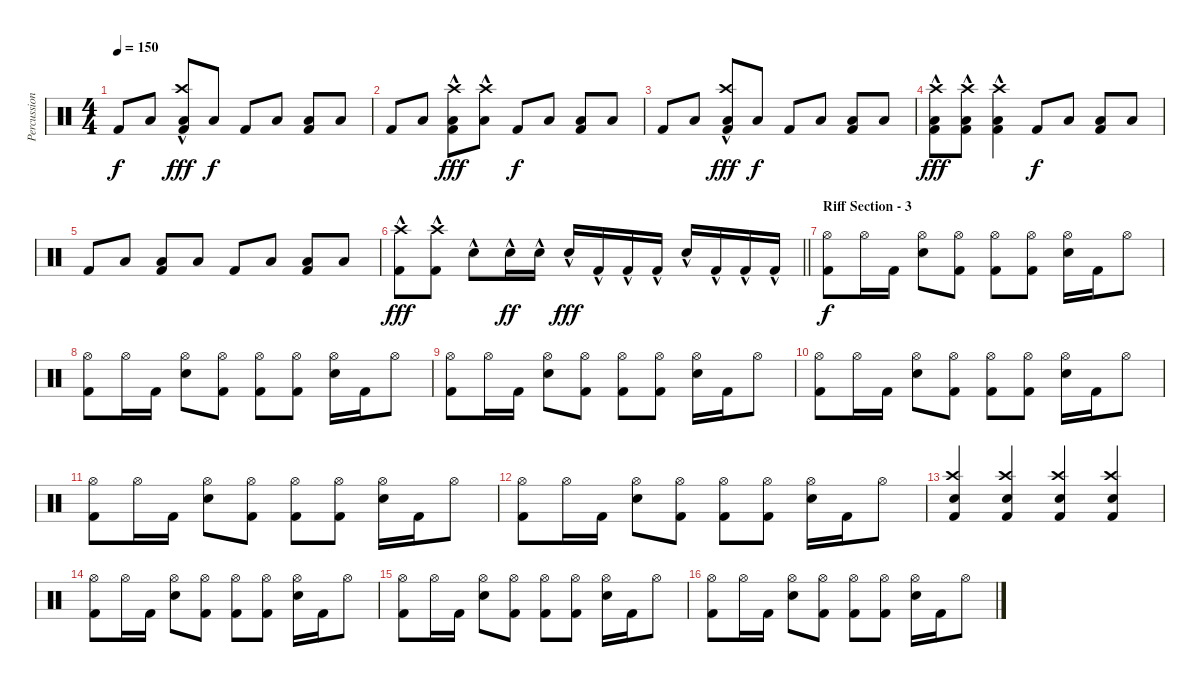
\track ("Percussion" "Percussion") {instrument percussion}
\staff {score}
\articulation defaults
\ts (4 4)
\tempo 150
\clef neutral
\ks c "Kick (hit) 2".8{dy f} "Low Floor Tom (hit)".8
("Crash high (hit)"{hac} "Low Tom (hit)" "Kick (hit) 2").8{dy fff} "Low Floor Tom (hit)".8{dy f} "Kick (hit) 2".8 "Low Floor Tom (hit)".8 ("Low Tom (hit)" "Kick (hit) 2").8 "Low Floor Tom (hit)".8 |
"Kick (hit) 2".8 "Low Floor Tom (hit)".8 ("Crash high (hit)"{hac} "Low Tom (hit)" "Kick (hit) 2").8{dy fff} ("Crash high (hit)"{hac} "Low Floor Tom (hit)").8 "Kick (hit) 2".8{dy f} "Low Floor Tom (hit)".8 ("Low Tom (hit)" "Kick (hit) 2").8 "Low Floor Tom (hit)".8 |
"Kick (hit) 2".8 "Low Floor Tom (hit)".8 ("Crash high (hit)"{hac} "Low Tom (hit)" "Kick (hit) 2").8{dy fff} "Low Floor Tom (hit)".8{dy f} "Kick (hit) 2".8 "Low Floor Tom (hit)".8 ("Low Tom (hit)" "Kick (hit) 2").8 "Low Floor Tom (hit)".8 |
("Crash high (hit)"{hac} "Low Floor Tom (hit)"{hac} "Kick (hit) 2"{hac}).8{dy fff} ("Crash high (hit)"{hac} "Low Floor Tom (hit)"{hac} "Kick (hit) 2"{hac}).8 ("Crash high (hit)"{hac} "Low Floor Tom (hit)"{hac} "Kick (hit) 2"{hac}).4 "Kick (hit) 2".8{dy f} "Low Floor Tom (hit)".8 ("Low Tom (hit)" "Kick (hit) 2").8 "Low Floor Tom (hit)".8 |
"Kick (hit) 2".8 "Low Floor Tom (hit)".8 ("Low Tom (hit)" "Kick (hit) 2").8 "Low Floor Tom (hit)".8 "Kick (hit) 2".8 "Low Floor Tom (hit)".8 ("Low Tom (hit)" "Kick (hit) 2").8 "Low Floor Tom (hit)".8 |
\barLineRight lightlight
("Crash high (hit)"{hac} "Kick (hit) 2"{hac}).8{dy fff} ("Crash high (hit)"{hac} "Kick (hit) 2"{hac}).8 "Snare (hit) 2"{hac}.8 "Snare (hit) 2"{hac}.16{dy ff} "Snare (hit) 2"{hac}.16 "Snare (hit) 2"{hac}.16{dy fff} "Kick (hit) 2"{hac}.16 "Kick (hit) 2"{hac}.16 "Kick (hit) 2"{hac}.16 "Snare (hit) 2"{hac}.16 "Kick (hit) 2"{hac}.16 "Kick (hit) 2"{hac}.16 "Kick (hit) 2"{hac}.16 |
\section ("" "Riff Section - 3")
("Hi-Hat (open)" "Kick (hit) 2").8{dy f} "Hi-Hat (open)".16 "Kick (hit) 2".16 ("Hi-Hat (open)" "Snare (hit) 2").8 ("Hi-Hat (open)" "Kick (hit) 2").8 ("Hi-Hat (open)" "Kick (hit) 2").8 ("Hi-Hat (open)" "Kick (hit) 2").8 ("Hi-Hat (open)" "Snare (hit) 2").16 "Kick (hit) 2".16 "Hi-Hat (open)".8 |
("Hi-Hat (open)" "Kick (hit) 2").8 "Hi-Hat (open)".16 "Kick (hit) 2".16 ("Hi-Hat (open)" "Snare (hit) 2").8 ("Hi-Hat (open)" "Kick (hit) 2").8 ("Hi-Hat (open)" "Kick (hit) 2").8 ("Hi-Hat (open)" "Kick (hit) 2").8 ("Hi-Hat (open)" "Snare (hit) 2").16 "Kick (hit) 2".16 "Hi-Hat (open)".8 |
("Hi-Hat (open)" "Kick (hit) 2").8 "Hi-Hat (open)".16 "Kick (hit) 2".16 ("Hi-Hat (open)" "Snare (hit) 2").8 ("Hi-Hat (open)" "Kick (hit) 2").8 ("Hi-Hat (open)" "Kick (hit) 2").8 ("Hi-Hat (open)" "Kick (hit) 2").8 ("Hi-Hat (open)" "Snare (hit) 2").16 "Kick (hit) 2".16 "Hi-Hat (open)".8 |
("Hi-Hat (open)" "Kick (hit) 2").8 "Hi-Hat (open)".16 "Kick (hit) 2".16 ("Hi-Hat (open)" "Snare (hit) 2").8 ("Hi-Hat (open)" "Kick (hit) 2").8 ("Hi-Hat (open)" "Kick (hit) 2").8 ("Hi-Hat (open)" "Kick (hit) 2").8 ("Hi-Hat (open)" "Snare (hit) 2").16 "Kick (hit) 2".16 "Hi-Hat (open)".8 |
("Hi-Hat (open)" "Kick (hit) 2").8 "Hi-Hat (open)".16 "Kick (hit) 2".16 ("Hi-Hat (open)" "Snare (hit) 2").8 ("Hi-Hat (open)" "Kick (hit) 2").8 ("Hi-Hat (open)" "Kick (hit) 2").8 ("Hi-Hat (open)" "Kick (hit) 2").8 ("Hi-Hat (open)" "Snare (hit) 2").16 "Kick (hit) 2".16 "Hi-Hat (open)".8 |
("Hi-Hat (open)" "Kick (hit) 2").8 "Hi-Hat (open)".16 "Kick (hit) 2".16 ("Hi-Hat (open)" "Snare (hit) 2").8 ("Hi-Hat (open)" "Kick (hit) 2").8 ("Hi-Hat (open)" "Kick (hit) 2").8 ("Hi-Hat (open)" "Kick (hit) 2").8 ("Hi-Hat (open)" "Snare (hit) 2").16 "Kick (hit) 2".16 "Hi-Hat (open)".8 |
("Crash high (hit)" "Snare (hit) 2" "Kick (hit) 2").4 ("Crash high (hit)" "Snare (hit) 2" "Kick (hit) 2").4 ("Crash high (hit)" "Snare (hit) 2" "Kick (hit) 2").4 ("Crash high (hit)" "Snare (hit) 2" "Kick (hit) 2").4 |
("Hi-Hat (open)" "Kick (hit) 2").8 "Hi-Hat (open)".16 "Kick (hit) 2".16 ("Hi-Hat (open)" "Snare (hit) 2").8 ("Hi-Hat (open)" "Kick (hit) 2").8 ("Hi-Hat (open)" "Kick (hit) 2").8 ("Hi-Hat (open)" "Kick (hit) 2").8 ("Hi-Hat (open)" "Snare (hit) 2").16 "Kick (hit) 2".16 "Hi-Hat (open)".8 |
("Hi-Hat (open)" "Kick (hit) 2").8 "Hi-Hat (open)".16 "Kick (hit) 2".16 ("Hi-Hat (open)" "Snare (hit) 2").8 ("Hi-Hat (open)" "Kick (hit) 2").8 ("Hi-Hat (open)" "Kick (hit) 2").8 ("Hi-Hat (open)" "Kick (hit) 2").8 ("Hi-Hat (open)" "Snare (hit) 2").16 "Kick (hit) 2".16 "Hi-Hat (open)".8 |
("Hi-Hat (open)" "Kick (hit) 2").8 "Hi-Hat (open)".16 "Kick (hit) 2".16 ("Hi-Hat (open)" "Snare (hit) 2").8 ("Hi-Hat (open)" "Kick (hit) 2").8 ("Hi-Hat (open)" "Kick (hit) 2").8 ("Hi-Hat (open)" "Kick (hit) 2").8 ("Hi-Hat (open)" "Snare (hit) 2").16 "Kick (hit) 2".16 "Hi-Hat (open)".8
